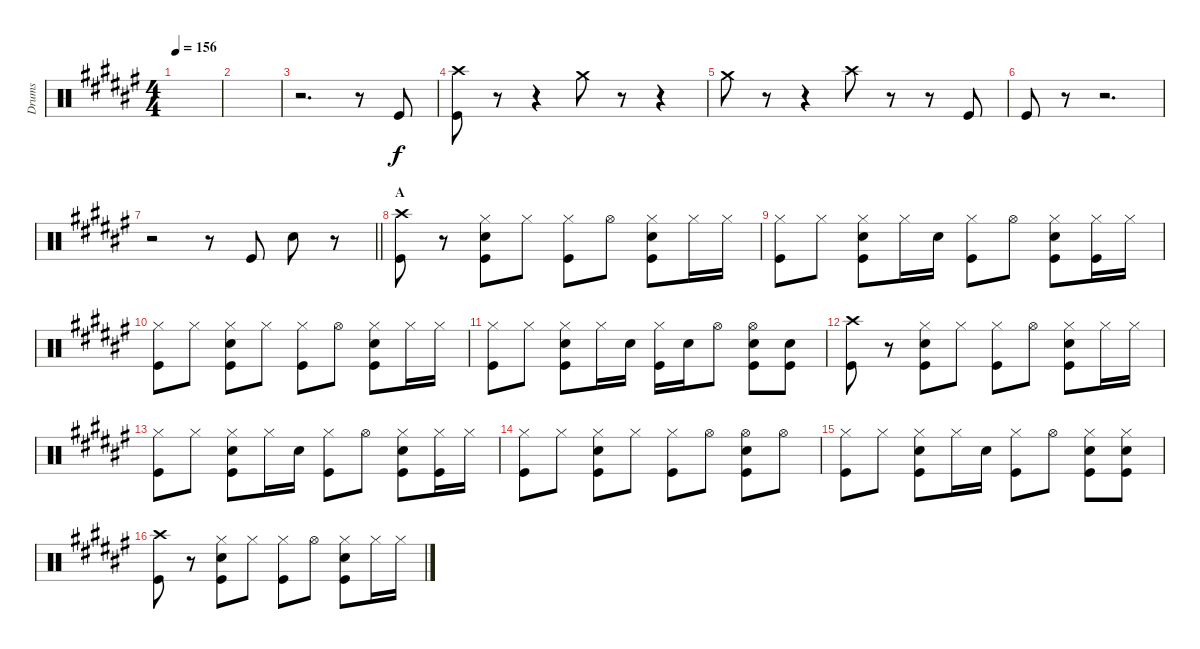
\track ("Drums" "Drums") {instrument percussion}
\staff {score}
\articulation defaults
\ts (4 4)
\tempo 156
\clef neutral
\ks f#
|
|
r.2{d} r.8 "Kick (hit)".8 |
("Crash high (hit)" "Kick (hit)").8 r.8 r.4 "Crash medium (hit)".8 r.8 r.4 |
"Crash medium (hit)".8 r.8 r.4 "Crash high (hit)".8 r.8 r.8 "Kick (hit)".8 |
"Kick (hit)".8 r.8 r.2{d} |
\barLineRight lightlight
r.2 r.8 "Kick (hit)".8 "Snare (hit) 2".8 r.8 |
\section ("" "A")
("Crash high (hit)" "Kick (hit)").8{dy f} r.8 ("Hi-Hat (closed)" "Snare (hit) 2" "Kick (hit)").8 "Hi-Hat (closed)".8 ("Hi-Hat (closed)" "Kick (hit)").8 "Hi-Hat (open)".8 ("Hi-Hat (closed)" "Snare (hit) 2" "Kick (hit)").8 "Hi-Hat (closed)".16 "Hi-Hat (closed)".16 |
("Hi-Hat (closed)" "Kick (hit)").8 "Hi-Hat (closed)".8 ("Hi-Hat (closed)" "Snare (hit) 2" "Kick (hit)").8 "Hi-Hat (closed)".16 "Snare (hit) 2".16 ("Hi-Hat (closed)" "Kick (hit)").8 "Hi-Hat (open)".8 ("Hi-Hat (closed)" "Snare (hit) 2" "Kick (hit)").8 ("Hi-Hat (closed)" "Kick (hit)").16 "Hi-Hat (closed)".16 |
("Hi-Hat (closed)" "Kick (hit)").8 "Hi-Hat (closed)".8 ("Hi-Hat (closed)" "Snare (hit) 2" "Kick (hit)").8 "Hi-Hat (closed)".8 ("Hi-Hat (closed)" "Kick (hit)").8 "Hi-Hat (open)".8 ("Hi-Hat (closed)" "Snare (hit) 2" "Kick (hit)").8 "Hi-Hat (closed)".16 "Hi-Hat (closed)".16 |
("Hi-Hat (closed)" "Kick (hit)").8 "Hi-Hat (closed)".8 ("Hi-Hat (closed)" "Snare (hit) 2" "Kick (hit)").8 "Hi-Hat (closed)".16 "Snare (hit) 2".16 ("Hi-Hat (closed)" "Kick (hit)").16 "Snare (hit) 2".16 "Hi-Hat (open)".8 ("Hi-Hat (open)" "Snare (hit) 2" "Kick (hit)").8 ("Snare (hit) 2" "Kick (hit)").8 |
("Crash high (hit)" "Kick (hit)").8 r.8 ("Hi-Hat (closed)" "Snare (hit) 2" "Kick (hit)").8 "Hi-Hat (closed)".8 ("Hi-Hat (closed)" "Kick (hit)").8 "Hi-Hat (open)".8 ("Hi-Hat (closed)" "Snare (hit) 2" "Kick (hit)").8 "Hi-Hat (closed)".16 "Hi-Hat (closed)".16 |
("Hi-Hat (closed)" "Kick (hit)").8 "Hi-Hat (closed)".8 ("Hi-Hat (closed)" "Snare (hit) 2" "Kick (hit)").8 "Hi-Hat (closed)".16 "Snare (hit) 2".16 ("Hi-Hat (closed)" "Kick (hit)").8 "Hi-Hat (open)".8 ("Hi-Hat (closed)" "Snare (hit) 2" "Kick (hit)").8 ("Hi-Hat (closed)" "Kick (hit)").16 "Hi-Hat (closed)".16 |
("Hi-Hat (closed)" "Kick (hit)").8 "Hi-Hat (closed)".8 ("Hi-Hat (closed)" "Snare (hit) 2" "Kick (hit)").8 "Hi-Hat (closed)".8 ("Hi-Hat (closed)" "Kick (hit)").8 "Hi-Hat (open)".8 ("Hi-Hat (open)" "Snare (hit) 2" "Kick (hit)").8 "Hi-Hat (open)".8 |
("Hi-Hat (closed)" "Kick (hit)").8 "Hi-Hat (closed)".8 ("Hi-Hat (closed)" "Snare (hit) 2" "Kick (hit)").8 "Hi-Hat (closed)".16 "Snare (hit) 2".16 ("Hi-Hat (closed)" "Kick (hit)").8 "Hi-Hat (open)".8 ("Hi-Hat (closed)" "Snare (hit) 2" "Kick (hit)").8 ("Hi-Hat (closed)" "Snare (hit) 2" "Kick (hit)").8 |
("Crash high (hit)" "Kick (hit)").8 r.8 ("Hi-Hat (closed)" "Snare (hit) 2" "Kick (hit)").8 "Hi-Hat (closed)".8 ("Hi-Hat (closed)" "Kick (hit)").8 "Hi-Hat (open)".8 ("Hi-Hat (closed)" "Snare (hit) 2" "Kick (hit)").8 "Hi-Hat (closed)".16 "Hi-Hat (closed)".16
